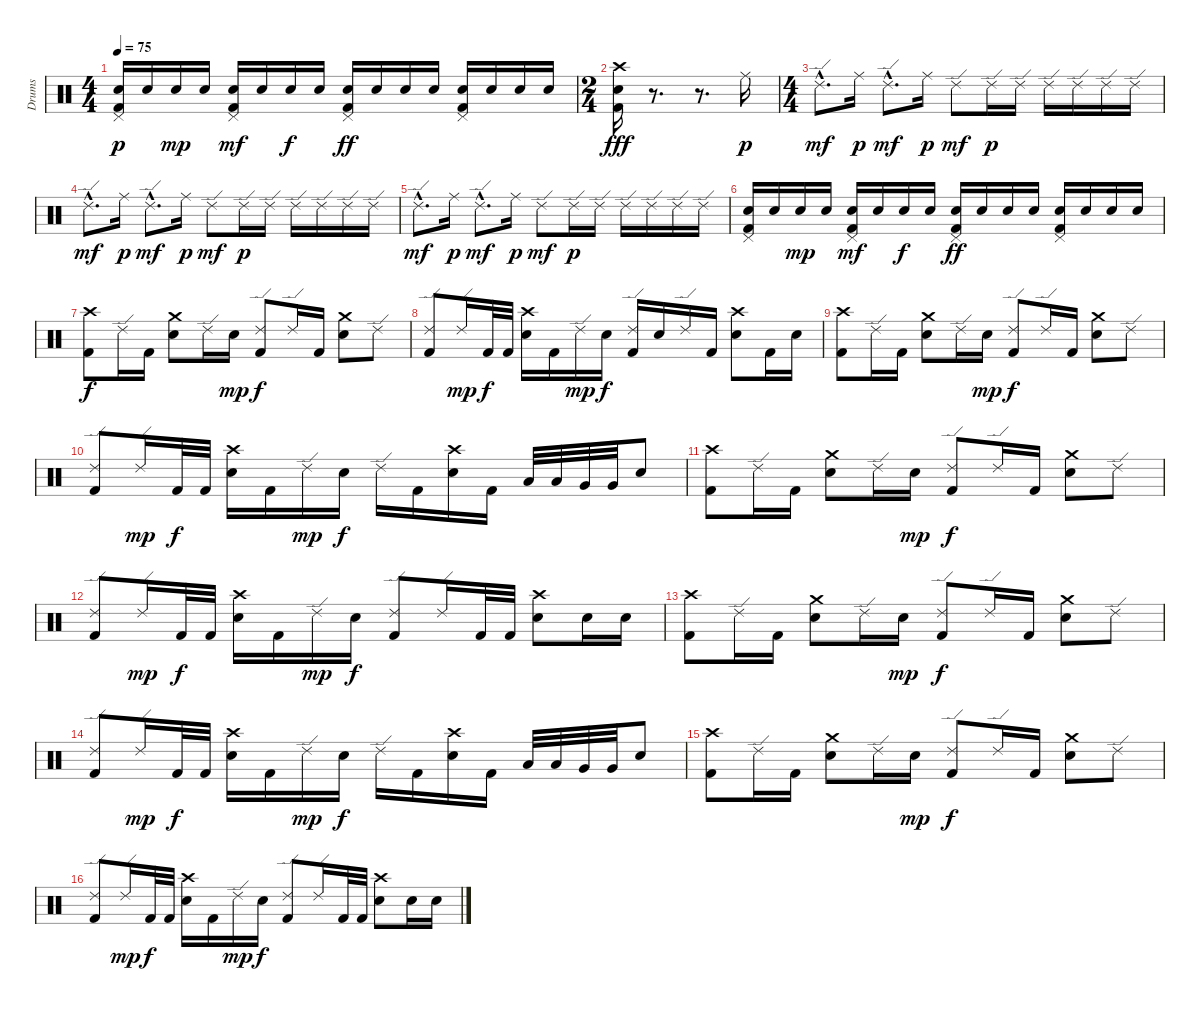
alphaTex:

\track ("Drums" "Drums") {instrument percussion}
\staff {score}
\articulation defaults
\ts (4 4)
\tempo 75
\clef neutral
\ks c
("Pedal Hi-Hat (hit)" "Electric Snare (hit)" "Kick (hit) 2").16{dy p} "Electric Snare (hit)".16 "Electric Snare (hit)".16{dy mp} "Electric Snare (hit)".16 ("Pedal Hi-Hat (hit)" "Electric Snare (hit)" "Kick (hit) 2").16{dy mf} "Electric Snare (hit)".16 "Electric Snare (hit)".16{dy f} "Electric Snare (hit)".16 ("Pedal Hi-Hat (hit)" "Electric Snare (hit)" "Kick (hit) 2").16{dy ff} "Electric Snare (hit)".16 "Electric Snare (hit)".16 "Electric Snare (hit)".16 ("Pedal Hi-Hat (hit)" "Electric Snare (hit)" "Kick (hit) 2").16 "Electric Snare (hit)".16 "Electric Snare (hit)".16 "Electric Snare (hit)".16 |
\ts (2 4)
("Crash high (hit)" "Electric Snare (hit)" "Kick (hit) 2").16{dy fff} r.8{d} r.8{d} "Ride (middle)"{tr (51 32)}.16{dy p} |
\ts (4 4)
"Ride (edge) 2"{hac}.8{d dy mf} "Ride (middle)"{tr (51 32)}.16{dy p} "Ride (edge) 2"{hac}.8{d dy mf} "Ride (middle)"{tr (51 32)}.16{dy p} "Ride (edge) 2".8{dy mf} "Ride (edge) 2".16{dy p} "Ride (edge) 2".16 "Ride (edge) 2".16 "Ride (edge) 2".16 "Ride (edge) 2".16 "Ride (edge) 2".16 |
"Ride (edge) 2"{hac}.8{d dy mf} "Ride (middle)"{tr (51 32)}.16{dy p} "Ride (edge) 2"{hac}.8{d dy mf} "Ride (middle)"{tr (51 32)}.16{dy p} "Ride (edge) 2".8{dy mf} "Ride (edge) 2".16{dy p} "Ride (edge) 2".16 "Ride (edge) 2".16 "Ride (edge) 2".16 "Ride (edge) 2".16 "Ride (edge) 2".16 |
"Ride (edge) 2"{hac}.8{d dy mf} "Ride (middle)"{tr (51 32)}.16{dy p} "Ride (edge) 2"{hac}.8{d dy mf} "Ride (middle)"{tr (51 32)}.16{dy p} "Ride (edge) 2".8{dy mf} "Ride (edge) 2".16{dy p} "Ride (edge) 2".16 "Ride (edge) 2".16 "Ride (edge) 2".16 "Ride (edge) 2".16 "Ride (edge) 2".16 |
("Pedal Hi-Hat (hit)" "Electric Snare (hit)" "Kick (hit) 2").16 "Electric Snare (hit)".16 "Electric Snare (hit)".16{dy mp} "Electric Snare (hit)".16 ("Pedal Hi-Hat (hit)" "Electric Snare (hit)" "Kick (hit) 2").16{dy mf} "Electric Snare (hit)".16 "Electric Snare (hit)".16{dy f} "Electric Snare (hit)".16 ("Pedal Hi-Hat (hit)" "Electric Snare (hit)" "Kick (hit) 2").16{dy ff} "Electric Snare (hit)".16 "Electric Snare (hit)".16 "Electric Snare (hit)".16 ("Pedal Hi-Hat (hit)" "Electric Snare (hit)" "Kick (hit) 2").16 "Electric Snare (hit)".16 "Electric Snare (hit)".16 "Electric Snare (hit)".16 |
("Crash high (hit)" "Kick (hit) 2").8{dy f} "Ride (edge) 2".16 "Kick (hit) 2".16 ("Crash medium (hit)" "Electric Snare (hit)").8 "Ride (edge) 2".16 "Electric Snare (hit)"{tr (40 32)}.16{dy mp} ("Ride (edge) 2" "Kick (hit) 2").8{dy f} "Ride (edge) 2".16 "Kick (hit) 2".16 ("Crash medium (hit)" "Electric Snare (hit)").8 "Ride (edge) 2".8 |
("Ride (edge) 2" "Kick (hit) 2").8 "Ride (edge) 2".16{dy mp} "Kick (hit) 2".32{dy f} "Kick (hit) 2".32 ("Crash high (hit)" "Electric Snare (hit)").16 "Kick (hit) 2".16 "Ride (edge) 2".16{dy mp} "Electric Snare (hit)".16{dy f} ("Ride (edge) 2" "Kick (hit) 2").16 "Electric Snare (hit)".16 "Ride (edge) 2".16 "Kick (hit) 2".16 ("Crash high (hit)" "Electric Snare (hit)").8 "Kick (hit) 2".16 "Electric Snare (hit)".16 |
("Crash high (hit)" "Kick (hit) 2").8 "Ride (edge) 2".16 "Kick (hit) 2".16 ("Crash medium (hit)" "Electric Snare (hit)").8 "Ride (edge) 2".16 "Electric Snare (hit)"{tr (40 32)}.16{dy mp} ("Ride (edge) 2" "Kick (hit) 2").8{dy f} "Ride (edge) 2".16 "Kick (hit) 2".16 ("Crash medium (hit)" "Electric Snare (hit)").8 "Ride (edge) 2".8 |
("Ride (edge) 2" "Kick (hit) 2").8 "Ride (edge) 2".16{dy mp} "Kick (hit) 2".32{dy f} "Kick (hit) 2".32 ("Crash high (hit)" "Electric Snare (hit)").16 "Kick (hit) 2".16 "Ride (edge) 2".16{dy mp} "Electric Snare (hit)".16{dy f} "Ride (edge) 2".16 "Kick (hit) 2".16 ("Crash high (hit)" "Electric Snare (hit)").16 "Kick (hit) 2".16 "Low Tom (hit)".32 "Low Tom (hit)".32 "Very Low Tom (hit)".32 "Very Low Tom (hit)".32 "Electric Snare (hit)".8 |
("Crash high (hit)" "Kick (hit) 2").8 "Ride (edge) 2".16 "Kick (hit) 2".16 ("Crash medium (hit)" "Electric Snare (hit)").8 "Ride (edge) 2".16 "Electric Snare (hit)"{tr (40 32)}.16{dy mp} ("Ride (edge) 2" "Kick (hit) 2").8{dy f} "Ride (edge) 2".16 "Kick (hit) 2".16 ("Crash medium (hit)" "Electric Snare (hit)").8 "Ride (edge) 2".8 |
("Ride (edge) 2" "Kick (hit) 2").8 "Ride (edge) 2".16{dy mp} "Kick (hit) 2".32{dy f} "Kick (hit) 2".32 ("Crash high (hit)" "Electric Snare (hit)").16 "Kick (hit) 2".16 "Ride (edge) 2".16{dy mp} "Electric Snare (hit)".16{dy f} ("Ride (edge) 2" "Kick (hit) 2").8 "Ride (edge) 2".16 "Kick (hit) 2".32 "Kick (hit) 2".32 ("Crash high (hit)" "Electric Snare (hit)").8 "Electric Snare (hit)".16 "Electric Snare (hit)".16 |
("Crash high (hit)" "Kick (hit) 2").8 "Ride (edge) 2".16 "Kick (hit) 2".16 ("Crash medium (hit)" "Electric Snare (hit)").8 "Ride (edge) 2".16 "Electric Snare (hit)"{tr (40 32)}.16{dy mp} ("Ride (edge) 2" "Kick (hit) 2").8{dy f} "Ride (edge) 2".16 "Kick (hit) 2".16 ("Crash medium (hit)" "Electric Snare (hit)").8 "Ride (edge) 2".8 |
("Ride (edge) 2" "Kick (hit) 2").8 "Ride (edge) 2".16{dy mp} "Kick (hit) 2".32{dy f} "Kick (hit) 2".32 ("Crash high (hit)" "Electric Snare (hit)").16 "Kick (hit) 2".16 "Ride (edge) 2".16{dy mp} "Electric Snare (hit)".16{dy f} "Ride (edge) 2".16 "Kick (hit) 2".16 ("Crash high (hit)" "Electric Snare (hit)").16 "Kick (hit) 2".16 "Low Tom (hit)".32 "Low Tom (hit)".32 "Very Low Tom (hit)".32 "Very Low Tom (hit)".32 "Electric Snare (hit)".8 |
("Crash high (hit)" "Kick (hit) 2").8 "Ride (edge) 2".16 "Kick (hit) 2".16 ("Crash medium (hit)" "Electric Snare (hit)").8 "Ride (edge) 2".16 "Electric Snare (hit)"{tr (40 32)}.16{dy mp} ("Ride (edge) 2" "Kick (hit) 2").8{dy f} "Ride (edge) 2".16 "Kick (hit) 2".16 ("Crash medium (hit)" "Electric Snare (hit)").8 "Ride (edge) 2".8 |
("Ride (edge) 2" "Kick (hit) 2").8 "Ride (edge) 2".16{dy mp} "Kick (hit) 2".32{dy f} "Kick (hit) 2".32 ("Crash high (hit)" "Electric Snare (hit)").16 "Kick (hit) 2".16 "Ride (edge) 2".16{dy mp} "Electric Snare (hit)".16{dy f} ("Ride (edge) 2" "Kick (hit) 2").8 "Ride (edge) 2".16 "Kick (hit) 2".32 "Kick (hit) 2".32 ("Crash high (hit)" "Electric Snare (hit)").8 "Electric Snare (hit)".16 "Electric Snare (hit)".16
